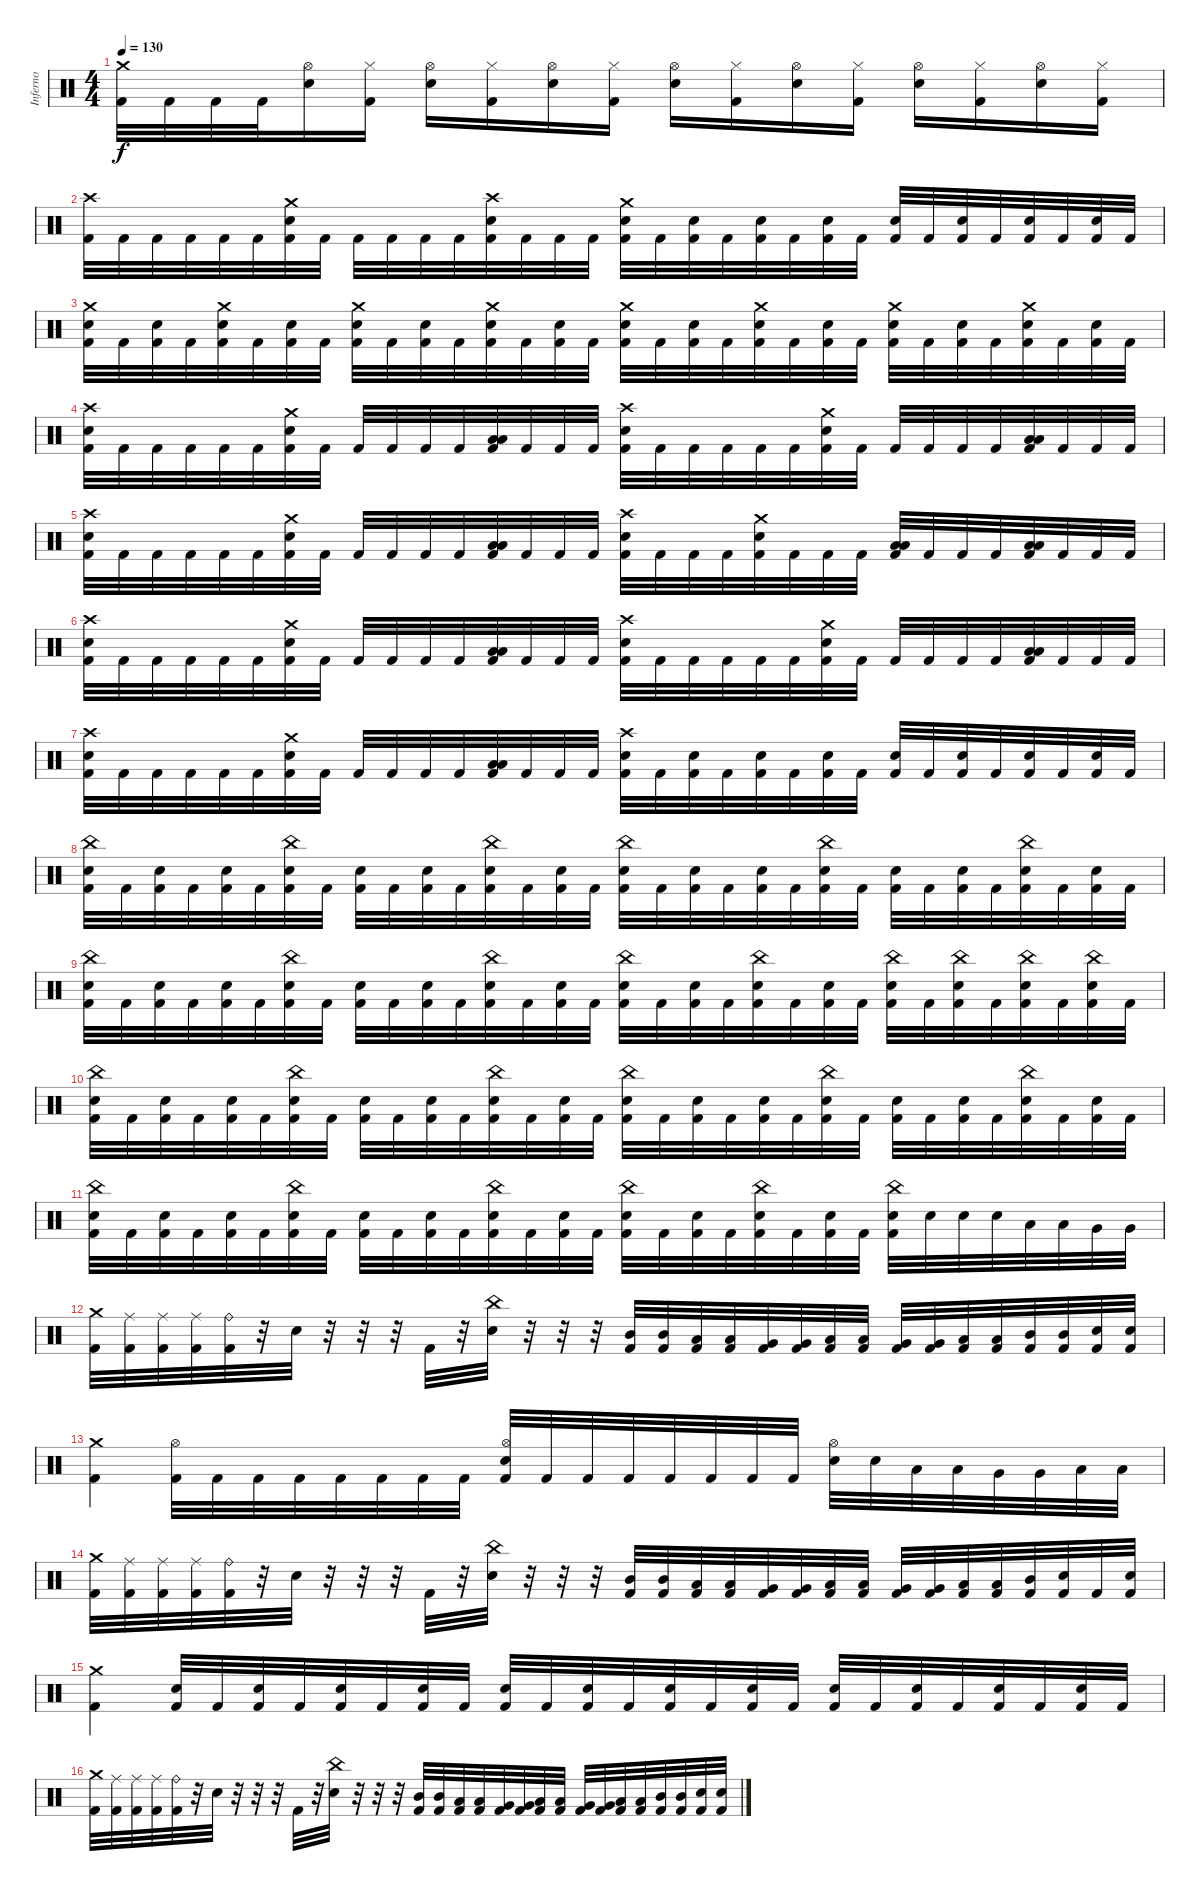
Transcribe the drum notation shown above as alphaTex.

\track ("Inferno" "Inferno") {instrument percussion}
\staff {score}
\articulation defaults
\ts (4 4)
\tempo 130
\clef neutral
\ks c
("Crash medium (hit)" "Kick (hit) 2").32{dy f} "Kick (hit) 2".32 "Kick (hit) 2".32 "Kick (hit) 2".32 ("Hi-Hat (open)" "Snare (hit) 2").16 ("Hi-Hat (closed)" "Kick (hit) 2").16 ("Hi-Hat (open)" "Snare (hit) 2").16 ("Hi-Hat (closed)" "Kick (hit) 2").16 ("Hi-Hat (open)" "Snare (hit) 2").16 ("Hi-Hat (closed)" "Kick (hit) 2").16 ("Hi-Hat (open)" "Snare (hit) 2").16 ("Hi-Hat (closed)" "Kick (hit) 2").16 ("Hi-Hat (open)" "Snare (hit) 2").16 ("Hi-Hat (closed)" "Kick (hit) 2").16 ("Hi-Hat (open)" "Snare (hit) 2").16 ("Hi-Hat (closed)" "Kick (hit) 2").16 ("Hi-Hat (open)" "Snare (hit) 2").16 ("Hi-Hat (closed)" "Kick (hit) 2").16 |
("Crash high (hit)" "Kick (hit) 2").32 "Kick (hit) 2".32 "Kick (hit) 2".32 "Kick (hit) 2".32 "Kick (hit) 2".32 "Kick (hit) 2".32 ("Crash medium (hit)" "Snare (hit) 2" "Kick (hit) 2").32 "Kick (hit) 2".32 "Kick (hit) 2".32 "Kick (hit) 2".32 "Kick (hit) 2".32 "Kick (hit) 2".32 ("Crash high (hit)" "Snare (hit) 2" "Kick (hit) 2").32 "Kick (hit) 2".32 "Kick (hit) 2".32 "Kick (hit) 2".32 ("Crash medium (hit)" "Snare (hit) 2" "Kick (hit) 2").32 "Kick (hit) 2".32 ("Snare (hit) 2" "Kick (hit) 2").32 "Kick (hit) 2".32 ("Snare (hit) 2" "Kick (hit) 2").32 "Kick (hit) 2".32 ("Snare (hit) 2" "Kick (hit) 2").32 "Kick (hit) 2".32 ("Snare (hit) 2" "Kick (hit) 2").32 "Kick (hit) 2".32 ("Snare (hit) 2" "Kick (hit) 2").32 "Kick (hit) 2".32 ("Snare (hit) 2" "Kick (hit) 2").32 "Kick (hit) 2".32 ("Snare (hit) 2" "Kick (hit) 2").32 "Kick (hit) 2".32 |
("Crash medium (hit)" "Snare (hit) 2" "Kick (hit) 2").32 "Kick (hit) 2".32 ("Snare (hit) 2" "Kick (hit) 2").32 "Kick (hit) 2".32 ("Crash medium (hit)" "Snare (hit) 2" "Kick (hit) 2").32 "Kick (hit) 2".32 ("Snare (hit) 2" "Kick (hit) 2").32 "Kick (hit) 2".32 ("Crash medium (hit)" "Snare (hit) 2" "Kick (hit) 2").32 "Kick (hit) 2".32 ("Snare (hit) 2" "Kick (hit) 2").32 "Kick (hit) 2".32 ("Crash medium (hit)" "Snare (hit) 2" "Kick (hit) 2").32 "Kick (hit) 2".32 ("Snare (hit) 2" "Kick (hit) 2").32 "Kick (hit) 2".32 ("Crash medium (hit)" "Snare (hit) 2" "Kick (hit) 2").32 "Kick (hit) 2".32 ("Snare (hit) 2" "Kick (hit) 2").32 "Kick (hit) 2".32 ("Crash medium (hit)" "Snare (hit) 2" "Kick (hit) 2").32 "Kick (hit) 2".32 ("Snare (hit) 2" "Kick (hit) 2").32 "Kick (hit) 2".32 ("Crash medium (hit)" "Snare (hit) 2" "Kick (hit) 2").32 "Kick (hit) 2".32 ("Snare (hit) 2" "Kick (hit) 2").32 "Kick (hit) 2".32 ("Crash medium (hit)" "Snare (hit) 2" "Kick (hit) 2").32 "Kick (hit) 2".32 ("Snare (hit) 2" "Kick (hit) 2").32 "Kick (hit) 2".32 |
("Crash high (hit)" "Snare (hit) 2" "Kick (hit) 2").32 "Kick (hit) 2".32 "Kick (hit) 2".32 "Kick (hit) 2".32 "Kick (hit) 2".32 "Kick (hit) 2".32 ("Crash medium (hit)" "Snare (hit) 2" "Kick (hit) 2").32 "Kick (hit) 2".32 "Kick (hit) 2".32 "Kick (hit) 2".32 "Kick (hit) 2".32 "Kick (hit) 2".32 ("Low Tom (hit)" "Low Floor Tom (hit)" "Kick (hit) 2").32 "Kick (hit) 2".32 "Kick (hit) 2".32 "Kick (hit) 2".32 ("Crash high (hit)" "Snare (hit) 2" "Kick (hit) 2").32 "Kick (hit) 2".32 "Kick (hit) 2".32 "Kick (hit) 2".32 "Kick (hit) 2".32 "Kick (hit) 2".32 ("Crash medium (hit)" "Snare (hit) 2" "Kick (hit) 2").32 "Kick (hit) 2".32 "Kick (hit) 2".32 "Kick (hit) 2".32 "Kick (hit) 2".32 "Kick (hit) 2".32 ("Low Tom (hit)" "Low Floor Tom (hit)" "Kick (hit) 2").32 "Kick (hit) 2".32 "Kick (hit) 2".32 "Kick (hit) 2".32 |
("Crash high (hit)" "Snare (hit) 2" "Kick (hit) 2").32 "Kick (hit) 2".32 "Kick (hit) 2".32 "Kick (hit) 2".32 "Kick (hit) 2".32 "Kick (hit) 2".32 ("Crash medium (hit)" "Snare (hit) 2" "Kick (hit) 2").32 "Kick (hit) 2".32 "Kick (hit) 2".32 "Kick (hit) 2".32 "Kick (hit) 2".32 "Kick (hit) 2".32 ("Low Tom (hit)" "Low Floor Tom (hit)" "Kick (hit) 2").32 "Kick (hit) 2".32 "Kick (hit) 2".32 "Kick (hit) 2".32 ("Crash high (hit)" "Snare (hit) 2" "Kick (hit) 2").32 "Kick (hit) 2".32 "Kick (hit) 2".32 "Kick (hit) 2".32 ("Crash medium (hit)" "Snare (hit) 2" "Kick (hit) 2").32 "Kick (hit) 2".32 "Kick (hit) 2".32 "Kick (hit) 2".32 ("Low Tom (hit)" "Low Floor Tom (hit)" "Kick (hit) 2").32 "Kick (hit) 2".32 "Kick (hit) 2".32 "Kick (hit) 2".32 ("Low Floor Tom (hit)" "Low Floor Tom (hit)" "Kick (hit) 2").32 "Kick (hit) 2".32 "Kick (hit) 2".32 "Kick (hit) 2".32 |
("Crash high (hit)" "Snare (hit) 2" "Kick (hit) 2").32 "Kick (hit) 2".32 "Kick (hit) 2".32 "Kick (hit) 2".32 "Kick (hit) 2".32 "Kick (hit) 2".32 ("Crash medium (hit)" "Snare (hit) 2" "Kick (hit) 2").32 "Kick (hit) 2".32 "Kick (hit) 2".32 "Kick (hit) 2".32 "Kick (hit) 2".32 "Kick (hit) 2".32 ("Low Tom (hit)" "Low Floor Tom (hit)" "Kick (hit) 2").32 "Kick (hit) 2".32 "Kick (hit) 2".32 "Kick (hit) 2".32 ("Crash high (hit)" "Snare (hit) 2" "Kick (hit) 2").32 "Kick (hit) 2".32 "Kick (hit) 2".32 "Kick (hit) 2".32 "Kick (hit) 2".32 "Kick (hit) 2".32 ("Crash medium (hit)" "Snare (hit) 2" "Kick (hit) 2").32 "Kick (hit) 2".32 "Kick (hit) 2".32 "Kick (hit) 2".32 "Kick (hit) 2".32 "Kick (hit) 2".32 ("Low Tom (hit)" "Low Floor Tom (hit)" "Kick (hit) 2").32 "Kick (hit) 2".32 "Kick (hit) 2".32 "Kick (hit) 2".32 |
("Crash high (hit)" "Snare (hit) 2" "Kick (hit) 2").32 "Kick (hit) 2".32 "Kick (hit) 2".32 "Kick (hit) 2".32 "Kick (hit) 2".32 "Kick (hit) 2".32 ("Crash medium (hit)" "Snare (hit) 2" "Kick (hit) 2").32 "Kick (hit) 2".32 "Kick (hit) 2".32 "Kick (hit) 2".32 "Kick (hit) 2".32 "Kick (hit) 2".32 ("Low Tom (hit)" "Low Floor Tom (hit)" "Kick (hit) 2").32 "Kick (hit) 2".32 "Kick (hit) 2".32 "Kick (hit) 2".32 ("Crash high (hit)" "Snare (hit) 2" "Kick (hit) 2").32 "Kick (hit) 2".32 ("Snare (hit) 2" "Kick (hit) 2").32 "Kick (hit) 2".32 ("Snare (hit) 2" "Kick (hit) 2").32 "Kick (hit) 2".32 ("Snare (hit) 2" "Kick (hit) 2").32 "Kick (hit) 2".32 ("Snare (hit) 2" "Kick (hit) 2").32 "Kick (hit) 2".32 ("Snare (hit) 2" "Kick (hit) 2").32 "Kick (hit) 2".32 ("Snare (hit) 2" "Kick (hit) 2").32 "Kick (hit) 2".32 ("Snare (hit) 2" "Kick (hit) 2").32 "Kick (hit) 2".32 |
("China (hit)" "Snare (hit) 2" "Kick (hit) 2").32 "Kick (hit) 2".32 ("Snare (hit) 2" "Kick (hit) 2").32 "Kick (hit) 2".32 ("Snare (hit) 2" "Kick (hit) 2").32 "Kick (hit) 2".32 ("China (hit)" "Snare (hit) 2" "Kick (hit) 2").32 "Kick (hit) 2".32 ("Snare (hit) 2" "Kick (hit) 2").32 "Kick (hit) 2".32 ("Snare (hit) 2" "Kick (hit) 2").32 "Kick (hit) 2".32 ("China (hit)" "Snare (hit) 2" "Kick (hit) 2").32 "Kick (hit) 2".32 ("Snare (hit) 2" "Kick (hit) 2").32 "Kick (hit) 2".32 ("China (hit)" "Snare (hit) 2" "Kick (hit) 2").32 "Kick (hit) 2".32 ("Snare (hit) 2" "Kick (hit) 2").32 "Kick (hit) 2".32 ("Snare (hit) 2" "Kick (hit) 2").32 "Kick (hit) 2".32 ("China (hit)" "Snare (hit) 2" "Kick (hit) 2").32 "Kick (hit) 2".32 ("Snare (hit) 2" "Kick (hit) 2").32 "Kick (hit) 2".32 ("Snare (hit) 2" "Kick (hit) 2").32 "Kick (hit) 2".32 ("China (hit)" "Snare (hit) 2" "Kick (hit) 2").32 "Kick (hit) 2".32 ("Snare (hit) 2" "Kick (hit) 2").32 "Kick (hit) 2".32 |
("China (hit)" "Snare (hit) 2" "Kick (hit) 2").32 "Kick (hit) 2".32 ("Snare (hit) 2" "Kick (hit) 2").32 "Kick (hit) 2".32 ("Snare (hit) 2" "Kick (hit) 2").32 "Kick (hit) 2".32 ("China (hit)" "Snare (hit) 2" "Kick (hit) 2").32 "Kick (hit) 2".32 ("Snare (hit) 2" "Kick (hit) 2").32 "Kick (hit) 2".32 ("Snare (hit) 2" "Kick (hit) 2").32 "Kick (hit) 2".32 ("China (hit)" "Snare (hit) 2" "Kick (hit) 2").32 "Kick (hit) 2".32 ("Snare (hit) 2" "Kick (hit) 2").32 "Kick (hit) 2".32 ("China (hit)" "Snare (hit) 2" "Kick (hit) 2").32 "Kick (hit) 2".32 ("Snare (hit) 2" "Kick (hit) 2").32 "Kick (hit) 2".32 ("China (hit)" "Snare (hit) 2" "Kick (hit) 2").32 "Kick (hit) 2".32 ("Snare (hit) 2" "Kick (hit) 2").32 "Kick (hit) 2".32 ("China (hit)" "Snare (hit) 2" "Kick (hit) 2").32 "Kick (hit) 2".32 ("China (hit)" "Snare (hit) 2" "Kick (hit) 2").32 "Kick (hit) 2".32 ("China (hit)" "Snare (hit) 2" "Kick (hit) 2").32 "Kick (hit) 2".32 ("China (hit)" "Snare (hit) 2" "Kick (hit) 2").32 "Kick (hit) 2".32 |
("China (hit)" "Snare (hit) 2" "Kick (hit) 2").32 "Kick (hit) 2".32 ("Snare (hit) 2" "Kick (hit) 2").32 "Kick (hit) 2".32 ("Snare (hit) 2" "Kick (hit) 2").32 "Kick (hit) 2".32 ("China (hit)" "Snare (hit) 2" "Kick (hit) 2").32 "Kick (hit) 2".32 ("Snare (hit) 2" "Kick (hit) 2").32 "Kick (hit) 2".32 ("Snare (hit) 2" "Kick (hit) 2").32 "Kick (hit) 2".32 ("China (hit)" "Snare (hit) 2" "Kick (hit) 2").32 "Kick (hit) 2".32 ("Snare (hit) 2" "Kick (hit) 2").32 "Kick (hit) 2".32 ("China (hit)" "Snare (hit) 2" "Kick (hit) 2").32 "Kick (hit) 2".32 ("Snare (hit) 2" "Kick (hit) 2").32 "Kick (hit) 2".32 ("Snare (hit) 2" "Kick (hit) 2").32 "Kick (hit) 2".32 ("China (hit)" "Snare (hit) 2" "Kick (hit) 2").32 "Kick (hit) 2".32 ("Snare (hit) 2" "Kick (hit) 2").32 "Kick (hit) 2".32 ("Snare (hit) 2" "Kick (hit) 2").32 "Kick (hit) 2".32 ("China (hit)" "Snare (hit) 2" "Kick (hit) 2").32 "Kick (hit) 2".32 ("Snare (hit) 2" "Kick (hit) 2").32 "Kick (hit) 2".32 |
("China (hit)" "Snare (hit) 2" "Kick (hit) 2").32 "Kick (hit) 2".32 ("Snare (hit) 2" "Kick (hit) 2").32 "Kick (hit) 2".32 ("Snare (hit) 2" "Kick (hit) 2").32 "Kick (hit) 2".32 ("China (hit)" "Snare (hit) 2" "Kick (hit) 2").32 "Kick (hit) 2".32 ("Snare (hit) 2" "Kick (hit) 2").32 "Kick (hit) 2".32 ("Snare (hit) 2" "Kick (hit) 2").32 "Kick (hit) 2".32 ("China (hit)" "Snare (hit) 2" "Kick (hit) 2").32 "Kick (hit) 2".32 ("Snare (hit) 2" "Kick (hit) 2").32 "Kick (hit) 2".32 ("China (hit)" "Snare (hit) 2" "Kick (hit) 2").32 "Kick (hit) 2".32 ("Snare (hit) 2" "Kick (hit) 2").32 "Kick (hit) 2".32 ("China (hit)" "Snare (hit) 2" "Kick (hit) 2").32 "Kick (hit) 2".32 ("Snare (hit) 2" "Kick (hit) 2").32 "Kick (hit) 2".32 ("China (hit)" "Snare (hit) 2" "Kick (hit) 2").32 "Snare (hit) 2".32 "Snare (hit) 2".32 "Snare (hit) 2".32 "Low Tom (hit)".32 "Low Tom (hit)".32 "Very Low Tom (hit)".32 "Very Low Tom (hit)".32 |
("Crash medium (hit)" "Kick (hit) 2").32 ("Ride (middle)" "Kick (hit) 2").32 ("Ride (middle)" "Kick (hit) 2").32 ("Ride (middle)" "Kick (hit) 2").32 ("Ride (bell)" "Kick (hit) 2").32 r.32 "Snare (hit) 2".32 r.32 r.32 r.32 "Kick (hit) 2".32 r.32 ("China (hit)" "Snare (hit) 2").32 r.32 r.32 r.32 ("Mid Tom (hit)" "Kick (hit) 2").32 ("Mid Tom (hit)" "Kick (hit) 2").32 ("Low Tom (hit)" "Kick (hit) 2").32 ("Low Tom (hit)" "Kick (hit) 2").32 ("Very Low Tom (hit)" "Kick (hit) 2").32 ("Very Low Tom (hit)" "Kick (hit) 2").32 ("Low Floor Tom (hit)" "Kick (hit) 2").32 ("Low Floor Tom (hit)" "Kick (hit) 2").32 ("Very Low Tom (hit)" "Kick (hit) 2").32 ("Very Low Tom (hit)" "Kick (hit) 2").32 ("Low Tom (hit)" "Kick (hit) 2").32 ("Low Tom (hit)" "Kick (hit) 2").32 ("Mid Tom (hit)" "Kick (hit) 2").32 ("Mid Tom (hit)" "Kick (hit) 2").32 ("Snare (hit) 2" "Kick (hit) 2").32 ("Snare (hit) 2" "Kick (hit) 2").32 |
("Crash medium (hit)" "Kick (hit) 2").4 ("Hi-Hat (open)" "Kick (hit) 2").32 "Kick (hit) 2".32 "Kick (hit) 2".32 "Kick (hit) 2".32 "Kick (hit) 2".32 "Kick (hit) 2".32 "Kick (hit) 2".32 "Kick (hit) 2".32 ("Hi-Hat (open)" "Snare (hit) 2" "Kick (hit) 2").32 "Kick (hit) 2".32 "Kick (hit) 2".32 "Kick (hit) 2".32 "Kick (hit) 2".32 "Kick (hit) 2".32 "Kick (hit) 2".32 "Kick (hit) 2".32 ("Hi-Hat (open)" "Snare (hit) 2").32 "Snare (hit) 2".32 "Low Tom (hit)".32 "Low Tom (hit)".32 "Very Low Tom (hit)".32 "Very Low Tom (hit)".32 "Low Floor Tom (hit)".32 "Low Floor Tom (hit)".32 |
("Crash medium (hit)" "Kick (hit) 2").32 ("Ride (middle)" "Kick (hit) 2").32 ("Ride (middle)" "Kick (hit) 2").32 ("Ride (middle)" "Kick (hit) 2").32 ("Ride (bell)" "Kick (hit) 2").32 r.32 "Snare (hit) 2".32 r.32 r.32 r.32 "Kick (hit) 2".32 r.32 ("China (hit)" "Snare (hit) 2").32 r.32 r.32 r.32 ("Mid Tom (hit)" "Kick (hit) 2").32 ("Mid Tom (hit)" "Kick (hit) 2").32 ("Low Tom (hit)" "Kick (hit) 2").32 ("Low Tom (hit)" "Kick (hit) 2").32 ("Very Low Tom (hit)" "Kick (hit) 2").32 ("Very Low Tom (hit)" "Kick (hit) 2").32 ("Low Floor Tom (hit)" "Kick (hit) 2").32 ("Low Floor Tom (hit)" "Kick (hit) 2").32 ("Very Low Tom (hit)" "Kick (hit) 2").32 ("Very Low Tom (hit)" "Kick (hit) 2").32 ("Low Tom (hit)" "Kick (hit) 2").32 ("Low Tom (hit)" "Kick (hit) 2").32 ("Mid Tom (hit)" "Kick (hit) 2").32 ("Snare (hit) 2" "Kick (hit) 2").32 "Kick (hit) 2".32 ("Snare (hit) 2" "Kick (hit) 2").32 |
("Crash medium (hit)" "Kick (hit) 2").4 ("Snare (hit) 2" "Kick (hit) 2").32 "Kick (hit) 2".32 ("Snare (hit) 2" "Kick (hit) 2").32 "Kick (hit) 2".32 ("Snare (hit) 2" "Kick (hit) 2").32 "Kick (hit) 2".32 ("Snare (hit) 2" "Kick (hit) 2").32 "Kick (hit) 2".32 ("Snare (hit) 2" "Kick (hit) 2").32 "Kick (hit) 2".32 ("Snare (hit) 2" "Kick (hit) 2").32 "Kick (hit) 2".32 ("Snare (hit) 2" "Kick (hit) 2").32 "Kick (hit) 2".32 ("Snare (hit) 2" "Kick (hit) 2").32 "Kick (hit) 2".32 ("Snare (hit) 2" "Kick (hit) 2").32 "Kick (hit) 2".32 ("Snare (hit) 2" "Kick (hit) 2").32 "Kick (hit) 2".32 ("Snare (hit) 2" "Kick (hit) 2").32 "Kick (hit) 2".32 ("Snare (hit) 2" "Kick (hit) 2").32 "Kick (hit) 2".32 |
("Crash medium (hit)" "Kick (hit) 2").32 ("Ride (middle)" "Kick (hit) 2").32 ("Ride (middle)" "Kick (hit) 2").32 ("Ride (middle)" "Kick (hit) 2").32 ("Ride (bell)" "Kick (hit) 2").32 r.32 "Snare (hit) 2".32 r.32 r.32 r.32 "Kick (hit) 2".32 r.32 ("China (hit)" "Snare (hit) 2").32 r.32 r.32 r.32 ("Mid Tom (hit)" "Kick (hit) 2").32 ("Mid Tom (hit)" "Kick (hit) 2").32 ("Low Tom (hit)" "Kick (hit) 2").32 ("Low Tom (hit)" "Kick (hit) 2").32 ("Very Low Tom (hit)" "Kick (hit) 2").32 ("Very Low Tom (hit)" "Kick (hit) 2").32 ("Low Floor Tom (hit)" "Kick (hit) 2").32 ("Low Floor Tom (hit)" "Kick (hit) 2").32 ("Very Low Tom (hit)" "Kick (hit) 2").32 ("Very Low Tom (hit)" "Kick (hit) 2").32 ("Low Tom (hit)" "Kick (hit) 2").32 ("Low Tom (hit)" "Kick (hit) 2").32 ("Mid Tom (hit)" "Kick (hit) 2").32 ("Mid Tom (hit)" "Kick (hit) 2").32 ("Snare (hit) 2" "Kick (hit) 2").32 ("Snare (hit) 2" "Kick (hit) 2").32
